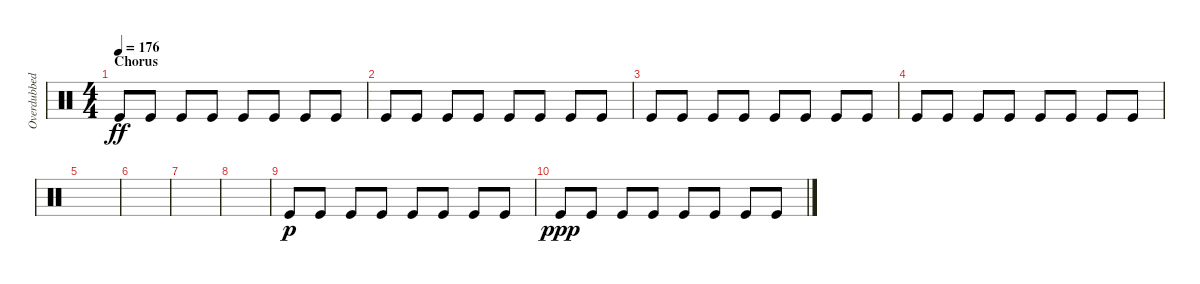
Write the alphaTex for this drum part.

\track ("Overdubbed bass drum" "Overdubbed") {instrument percussion}
\staff {score}
\articulation defaults
\ts (4 4)
\section ("" "Chorus")
\tempo 176
\clef neutral
\ks c "Kick (hit)".8{dy ff} "Kick (hit)".8 "Kick (hit)".8 "Kick (hit)".8 "Kick (hit)".8 "Kick (hit)".8 "Kick (hit)".8 "Kick (hit)".8
|
"Kick (hit)".8 "Kick (hit)".8 "Kick (hit)".8 "Kick (hit)".8 "Kick (hit)".8 "Kick (hit)".8 "Kick (hit)".8 "Kick (hit)".8 |
"Kick (hit)".8 "Kick (hit)".8 "Kick (hit)".8 "Kick (hit)".8 "Kick (hit)".8 "Kick (hit)".8 "Kick (hit)".8 "Kick (hit)".8 |
"Kick (hit)".8 "Kick (hit)".8 "Kick (hit)".8 "Kick (hit)".8 "Kick (hit)".8 "Kick (hit)".8 "Kick (hit)".8 "Kick (hit)".8 |
|
|
|
|
"Kick (hit)".8{dy p} "Kick (hit)".8 "Kick (hit)".8 "Kick (hit)".8 "Kick (hit)".8 "Kick (hit)".8 "Kick (hit)".8 "Kick (hit)".8 |
"Kick (hit)".8{dy ppp} "Kick (hit)".8 "Kick (hit)".8 "Kick (hit)".8 "Kick (hit)".8 "Kick (hit)".8 "Kick (hit)".8 "Kick (hit)".8
